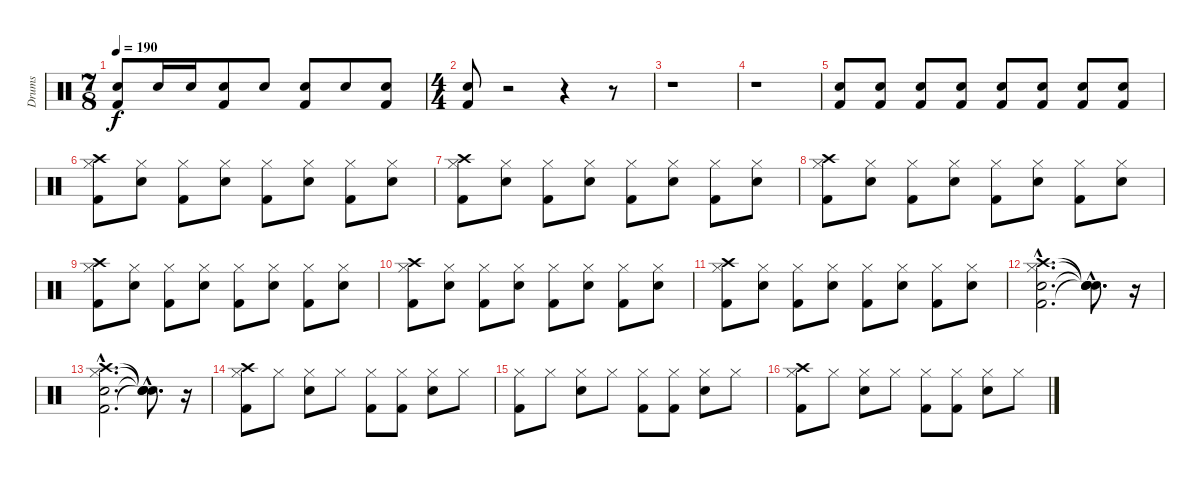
\track ("Drums" "Drums") {instrument percussion}
\staff {score}
\articulation defaults
\ts (7 8)
\tempo 190
\clef neutral
\ks c
("Kick (hit) 2" "Snare (hit) 2").8{dy f} "Snare (hit) 2".16 "Snare (hit) 2".16 ("Kick (hit) 2" "Snare (hit) 2").8 "Snare (hit) 2".8 ("Kick (hit) 2" "Snare (hit) 2").8 "Snare (hit) 2".8 ("Kick (hit) 2" "Snare (hit) 2").8 |
\ts (4 4)
("Kick (hit) 2" "Snare (hit) 2").8 r.2 r.4 r.8 |
r.1 |
r.1 |
("Kick (hit) 2" "Snare (hit) 2").8 ("Kick (hit) 2" "Snare (hit) 2").8 ("Kick (hit) 2" "Snare (hit) 2").8 ("Kick (hit) 2" "Snare (hit) 2").8 ("Kick (hit) 2" "Snare (hit) 2").8 ("Kick (hit) 2" "Snare (hit) 2").8 ("Kick (hit) 2" "Snare (hit) 2").8 ("Kick (hit) 2" "Snare (hit) 2").8 |
("Kick (hit) 2" "Hi-Hat (closed)" "Crash high (hit)").8 ("Snare (hit) 2" "Hi-Hat (closed)").8 ("Kick (hit) 2" "Hi-Hat (closed)").8 ("Snare (hit) 2" "Hi-Hat (closed)").8 ("Kick (hit) 2" "Hi-Hat (closed)").8 ("Snare (hit) 2" "Hi-Hat (closed)").8 ("Kick (hit) 2" "Hi-Hat (closed)").8 ("Snare (hit) 2" "Hi-Hat (closed)").8 |
("Kick (hit) 2" "Hi-Hat (closed)" "Crash high (hit)").8 ("Snare (hit) 2" "Hi-Hat (closed)").8 ("Kick (hit) 2" "Hi-Hat (closed)").8 ("Snare (hit) 2" "Hi-Hat (closed)").8 ("Kick (hit) 2" "Hi-Hat (closed)").8 ("Snare (hit) 2" "Hi-Hat (closed)").8 ("Kick (hit) 2" "Hi-Hat (closed)").8 ("Snare (hit) 2" "Hi-Hat (closed)").8 |
("Kick (hit) 2" "Hi-Hat (closed)" "Crash high (hit)").8 ("Snare (hit) 2" "Hi-Hat (closed)").8 ("Kick (hit) 2" "Hi-Hat (closed)").8 ("Snare (hit) 2" "Hi-Hat (closed)").8 ("Kick (hit) 2" "Hi-Hat (closed)").8 ("Snare (hit) 2" "Hi-Hat (closed)").8 ("Kick (hit) 2" "Hi-Hat (closed)").8 ("Snare (hit) 2" "Hi-Hat (closed)").8 |
("Kick (hit) 2" "Hi-Hat (closed)" "Crash high (hit)").8 ("Snare (hit) 2" "Hi-Hat (closed)").8 ("Kick (hit) 2" "Hi-Hat (closed)").8 ("Snare (hit) 2" "Hi-Hat (closed)").8 ("Kick (hit) 2" "Hi-Hat (closed)").8 ("Snare (hit) 2" "Hi-Hat (closed)").8 ("Kick (hit) 2" "Hi-Hat (closed)").8 ("Snare (hit) 2" "Hi-Hat (closed)").8 |
("Kick (hit) 2" "Hi-Hat (closed)" "Crash high (hit)").8 ("Snare (hit) 2" "Hi-Hat (closed)").8 ("Kick (hit) 2" "Hi-Hat (closed)").8 ("Snare (hit) 2" "Hi-Hat (closed)").8 ("Kick (hit) 2" "Hi-Hat (closed)").8 ("Snare (hit) 2" "Hi-Hat (closed)").8 ("Kick (hit) 2" "Hi-Hat (closed)").8 ("Snare (hit) 2" "Hi-Hat (closed)").8 |
("Kick (hit) 2" "Hi-Hat (closed)" "Crash high (hit)").8 ("Snare (hit) 2" "Hi-Hat (closed)").8 ("Kick (hit) 2" "Hi-Hat (closed)").8 ("Snare (hit) 2" "Hi-Hat (closed)").8 ("Kick (hit) 2" "Hi-Hat (closed)").8 ("Snare (hit) 2" "Hi-Hat (closed)").8 ("Kick (hit) 2" "Hi-Hat (closed)").8 ("Snare (hit) 2" "Hi-Hat (closed)").8 |
("Kick (hit) 2"{hac} "Snare (hit) 2"{hac} "Hi-Hat (closed)"{hac} "Crash high (hit)"{hac}).2{d} ("Snare (hit)"{hac t} "Snare (hit)"{hac t} "Snare (hit)"{hac t} "Snare (hit)"{hac t}).8{d} r.16 |
("Kick (hit) 2"{hac} "Snare (hit) 2"{hac} "Hi-Hat (closed)"{hac} "Crash high (hit)"{hac}).2{d} ("Snare (hit)"{hac t} "Snare (hit)"{hac t} "Snare (hit)"{hac t} "Snare (hit)"{hac t}).8{d} r.16 |
("Kick (hit) 2" "Hi-Hat (closed)" "Crash high (hit)").8 "Hi-Hat (closed)".8 ("Snare (hit) 2" "Hi-Hat (closed)").8 "Hi-Hat (closed)".8 ("Kick (hit) 2" "Hi-Hat (closed)").8 ("Kick (hit) 2" "Hi-Hat (closed)").8 ("Snare (hit) 2" "Hi-Hat (closed)").8 "Hi-Hat (closed)".8 |
("Kick (hit) 2" "Hi-Hat (closed)").8 "Hi-Hat (closed)".8 ("Snare (hit) 2" "Hi-Hat (closed)").8 "Hi-Hat (closed)".8 ("Kick (hit) 2" "Hi-Hat (closed)").8 ("Kick (hit) 2" "Hi-Hat (closed)").8 ("Snare (hit) 2" "Hi-Hat (closed)").8 "Hi-Hat (closed)".8 |
("Kick (hit) 2" "Hi-Hat (closed)" "Crash high (hit)").8 "Hi-Hat (closed)".8 ("Snare (hit) 2" "Hi-Hat (closed)").8 "Hi-Hat (closed)".8 ("Kick (hit) 2" "Hi-Hat (closed)").8 ("Kick (hit) 2" "Hi-Hat (closed)").8 ("Snare (hit) 2" "Hi-Hat (closed)").8 "Hi-Hat (closed)".8
